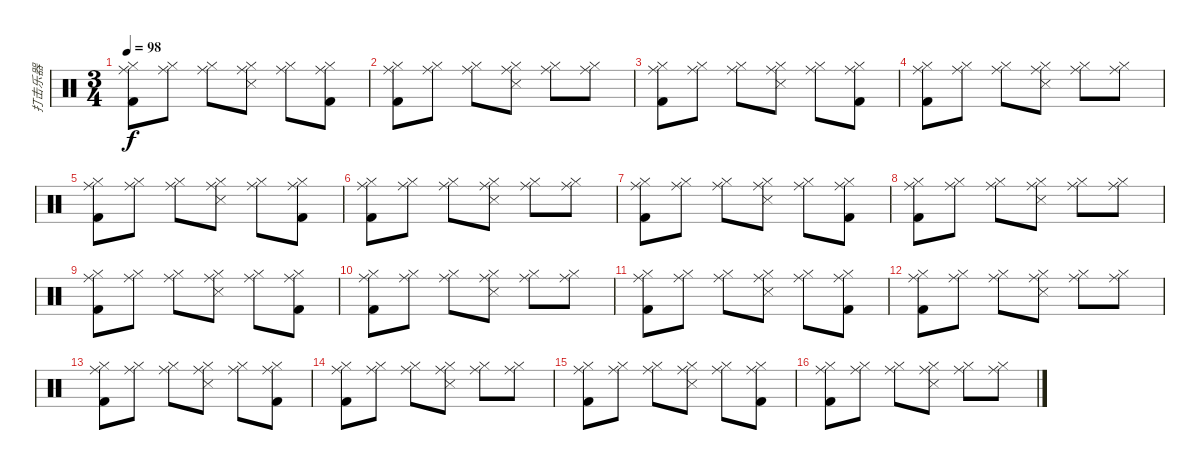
\track ("打击乐器" "打击乐器") {instrument percussion}
\staff {score}
\articulation defaults
\ts (3 4)
\tempo 98
\clef neutral
\ks c
("Kick (hit) 2" "Hi-Hat (closed)" "Ride (middle)").8{dy f} ("Hi-Hat (closed)" "Ride (middle)").8 ("Hi-Hat (closed)" "Ride (middle)").8 ("Snare (side stick) 3" "Hi-Hat (closed)" "Ride (middle)").8 ("Hi-Hat (closed)" "Ride (middle)").8 ("Kick (hit) 2" "Hi-Hat (closed)" "Ride (middle)").8 |
("Kick (hit) 2" "Hi-Hat (closed)" "Ride (middle)").8 ("Hi-Hat (closed)" "Ride (middle)").8 ("Hi-Hat (closed)" "Ride (middle)").8 ("Snare (side stick) 3" "Hi-Hat (closed)" "Ride (middle)").8 ("Hi-Hat (closed)" "Ride (middle)").8 ("Hi-Hat (closed)" "Ride (middle)").8 |
("Kick (hit) 2" "Hi-Hat (closed)" "Ride (middle)").8 ("Hi-Hat (closed)" "Ride (middle)").8 ("Hi-Hat (closed)" "Ride (middle)").8 ("Snare (side stick) 3" "Hi-Hat (closed)" "Ride (middle)").8 ("Hi-Hat (closed)" "Ride (middle)").8 ("Kick (hit) 2" "Hi-Hat (closed)" "Ride (middle)").8 |
("Kick (hit) 2" "Hi-Hat (closed)" "Ride (middle)").8 ("Hi-Hat (closed)" "Ride (middle)").8 ("Hi-Hat (closed)" "Ride (middle)").8 ("Snare (side stick) 3" "Hi-Hat (closed)" "Ride (middle)").8 ("Hi-Hat (closed)" "Ride (middle)").8 ("Hi-Hat (closed)" "Ride (middle)").8 |
("Kick (hit) 2" "Hi-Hat (closed)" "Ride (middle)").8 ("Hi-Hat (closed)" "Ride (middle)").8 ("Hi-Hat (closed)" "Ride (middle)").8 ("Snare (side stick) 3" "Hi-Hat (closed)" "Ride (middle)").8 ("Hi-Hat (closed)" "Ride (middle)").8 ("Kick (hit) 2" "Hi-Hat (closed)" "Ride (middle)").8 |
("Kick (hit) 2" "Hi-Hat (closed)" "Ride (middle)").8 ("Hi-Hat (closed)" "Ride (middle)").8 ("Hi-Hat (closed)" "Ride (middle)").8 ("Snare (side stick) 3" "Hi-Hat (closed)" "Ride (middle)").8 ("Hi-Hat (closed)" "Ride (middle)").8 ("Hi-Hat (closed)" "Ride (middle)").8 |
("Kick (hit) 2" "Hi-Hat (closed)" "Ride (middle)").8 ("Hi-Hat (closed)" "Ride (middle)").8 ("Hi-Hat (closed)" "Ride (middle)").8 ("Snare (side stick) 3" "Hi-Hat (closed)" "Ride (middle)").8 ("Hi-Hat (closed)" "Ride (middle)").8 ("Kick (hit) 2" "Hi-Hat (closed)" "Ride (middle)").8 |
("Kick (hit) 2" "Hi-Hat (closed)" "Ride (middle)").8 ("Hi-Hat (closed)" "Ride (middle)").8 ("Hi-Hat (closed)" "Ride (middle)").8 ("Snare (side stick) 3" "Hi-Hat (closed)" "Ride (middle)").8 ("Hi-Hat (closed)" "Ride (middle)").8 ("Hi-Hat (closed)" "Ride (middle)").8 |
("Kick (hit) 2" "Hi-Hat (closed)" "Ride (middle)").8 ("Hi-Hat (closed)" "Ride (middle)").8 ("Hi-Hat (closed)" "Ride (middle)").8 ("Snare (side stick) 3" "Hi-Hat (closed)" "Ride (middle)").8 ("Hi-Hat (closed)" "Ride (middle)").8 ("Kick (hit) 2" "Hi-Hat (closed)" "Ride (middle)").8 |
("Kick (hit) 2" "Hi-Hat (closed)" "Ride (middle)").8 ("Hi-Hat (closed)" "Ride (middle)").8 ("Hi-Hat (closed)" "Ride (middle)").8 ("Snare (side stick) 3" "Hi-Hat (closed)" "Ride (middle)").8 ("Hi-Hat (closed)" "Ride (middle)").8 ("Hi-Hat (closed)" "Ride (middle)").8 |
("Kick (hit) 2" "Hi-Hat (closed)" "Ride (middle)").8 ("Hi-Hat (closed)" "Ride (middle)").8 ("Hi-Hat (closed)" "Ride (middle)").8 ("Snare (side stick) 3" "Hi-Hat (closed)" "Ride (middle)").8 ("Hi-Hat (closed)" "Ride (middle)").8 ("Kick (hit) 2" "Hi-Hat (closed)" "Ride (middle)").8 |
("Kick (hit) 2" "Hi-Hat (closed)" "Ride (middle)").8 ("Hi-Hat (closed)" "Ride (middle)").8 ("Hi-Hat (closed)" "Ride (middle)").8 ("Snare (side stick) 3" "Hi-Hat (closed)" "Ride (middle)").8 ("Hi-Hat (closed)" "Ride (middle)").8 ("Hi-Hat (closed)" "Ride (middle)").8 |
("Kick (hit) 2" "Hi-Hat (closed)" "Ride (middle)").8 ("Hi-Hat (closed)" "Ride (middle)").8 ("Hi-Hat (closed)" "Ride (middle)").8 ("Snare (side stick) 3" "Hi-Hat (closed)" "Ride (middle)").8 ("Hi-Hat (closed)" "Ride (middle)").8 ("Kick (hit) 2" "Hi-Hat (closed)" "Ride (middle)").8 |
("Kick (hit) 2" "Hi-Hat (closed)" "Ride (middle)").8 ("Hi-Hat (closed)" "Ride (middle)").8 ("Hi-Hat (closed)" "Ride (middle)").8 ("Snare (side stick) 3" "Hi-Hat (closed)" "Ride (middle)").8 ("Hi-Hat (closed)" "Ride (middle)").8 ("Hi-Hat (closed)" "Ride (middle)").8 |
("Kick (hit) 2" "Hi-Hat (closed)" "Ride (middle)").8 ("Hi-Hat (closed)" "Ride (middle)").8 ("Hi-Hat (closed)" "Ride (middle)").8 ("Snare (side stick) 3" "Hi-Hat (closed)" "Ride (middle)").8 ("Hi-Hat (closed)" "Ride (middle)").8 ("Kick (hit) 2" "Hi-Hat (closed)" "Ride (middle)").8 |
("Kick (hit) 2" "Hi-Hat (closed)" "Ride (middle)").8 ("Hi-Hat (closed)" "Ride (middle)").8 ("Hi-Hat (closed)" "Ride (middle)").8 ("Snare (side stick) 3" "Hi-Hat (closed)" "Ride (middle)").8 ("Hi-Hat (closed)" "Ride (middle)").8 ("Hi-Hat (closed)" "Ride (middle)").8
